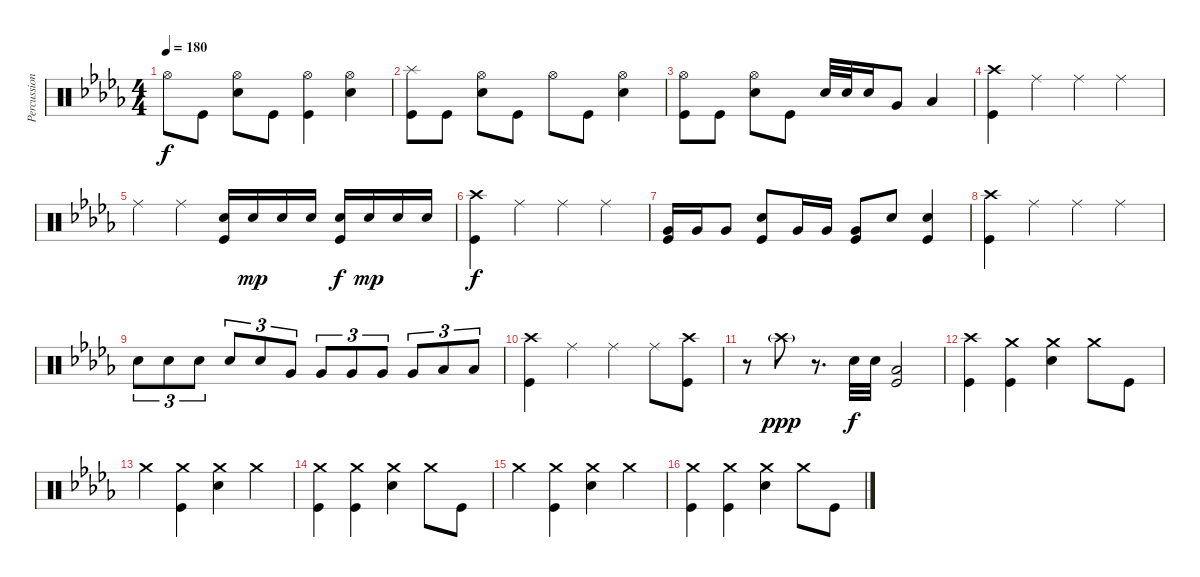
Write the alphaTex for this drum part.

\track ("Percussion" "Percussion") {instrument percussion}
\staff {score}
\articulation defaults
\ts (4 4)
\tempo 180
\clef neutral
\ks db "Hi-Hat (open)".8{dy f} "Kick (hit)".8
("Hi-Hat (open)" "Electric Snare (hit)").8 "Kick (hit)".8 ("Hi-Hat (open)" "Kick (hit)").4 ("Hi-Hat (open)" "Electric Snare (hit)").4 |
("Splash (hit)" "Kick (hit)").8 "Kick (hit)".8 ("Hi-Hat (open)" "Electric Snare (hit)").8 "Kick (hit)".8 "Hi-Hat (open)".8 "Kick (hit)".8 ("Hi-Hat (open)" "Electric Snare (hit)").4 |
("Hi-Hat (open)" "Kick (hit)").8 "Kick (hit)".8 ("Hi-Hat (open)" "Electric Snare (hit)").8 "Kick (hit)".8 "Electric Snare (hit)".32 "Electric Snare (hit)".32 "Electric Snare (hit)".16 "Very Low Tom (hit)".8 "Low Floor Tom (hit)".4 |
("Crash high (hit)" "Kick (hit)").4 "Ride (middle)".4 "Ride (middle)".4 "Ride (middle)".4 |
"Ride (middle)".4 "Ride (middle)".4 ("Electric Snare (hit)" "Kick (hit)").16 "Electric Snare (hit)".16{dy mp} "Electric Snare (hit)".16 "Electric Snare (hit)".16 ("Electric Snare (hit)" "Kick (hit)").16{dy f} "Electric Snare (hit)".16{dy mp} "Electric Snare (hit)".16 "Electric Snare (hit)".16 |
("Crash high (hit)" "Kick (hit)").4{dy f} "Ride (middle)".4 "Ride (middle)".4 "Ride (middle)".4 |
("Very Low Tom (hit)" "Kick (hit)").16 "Very Low Tom (hit)".16 "Very Low Tom (hit)".8 ("Electric Snare (hit)" "Kick (hit)").8 "Very Low Tom (hit)".16 "Very Low Tom (hit)".16 ("Very Low Tom (hit)" "Kick (hit)").8 "Electric Snare (hit)".8 ("Electric Snare (hit)" "Kick (hit)").4 |
("Crash high (hit)" "Kick (hit)").4 "Ride (middle)".4 "Ride (middle)".4 "Ride (middle)".4 |
"Electric Snare (hit)".8{tu (3 2)} "Electric Snare (hit)".8{tu (3 2)} "Electric Snare (hit)".8{tu (3 2)} "Electric Snare (hit)".8{tu (3 2)} "Electric Snare (hit)".8{tu (3 2)} "Very Low Tom (hit)".8{tu (3 2)} "Very Low Tom (hit)".8{tu (3 2)} "Very Low Tom (hit)".8{tu (3 2)} "Very Low Tom (hit)".8{tu (3 2)} "Very Low Tom (hit)".8{tu (3 2)} "Low Floor Tom (hit)".8{tu (3 2)} "Low Floor Tom (hit)".8{tu (3 2)} |
("Crash high (hit)" "Kick (hit)").4 "Ride (middle)".4 "Ride (middle)".4 "Ride (middle)".8 ("Crash high (hit)" "Kick (hit)").8 |
r.8 "Crash high (hit)"{g}.8{dy ppp} r.8{d} "Electric Snare (hit)".32{dy f} "Electric Snare (hit)".32 ("Low Floor Tom (hit)" "Kick (hit)").2 |
("Crash high (hit)" "Kick (hit)").4 ("Crash medium (hit)" "Kick (hit)").4 ("Crash medium (hit)" "Electric Snare (hit)").4 "Crash medium (hit)".8 "Kick (hit)".8 |
"Crash medium (hit)".4 ("Crash medium (hit)" "Kick (hit)").4 ("Crash medium (hit)" "Electric Snare (hit)").4 "Crash medium (hit)".4 |
("Crash medium (hit)" "Kick (hit)").4 ("Crash medium (hit)" "Kick (hit)").4 ("Crash medium (hit)" "Electric Snare (hit)").4 "Crash medium (hit)".8 "Kick (hit)".8 |
"Crash medium (hit)".4 ("Crash medium (hit)" "Kick (hit)").4 ("Crash medium (hit)" "Electric Snare (hit)").4 "Crash medium (hit)".4 |
("Crash medium (hit)" "Kick (hit)").4 ("Crash medium (hit)" "Kick (hit)").4 ("Crash medium (hit)" "Electric Snare (hit)").4 "Crash medium (hit)".8 "Kick (hit)".8
